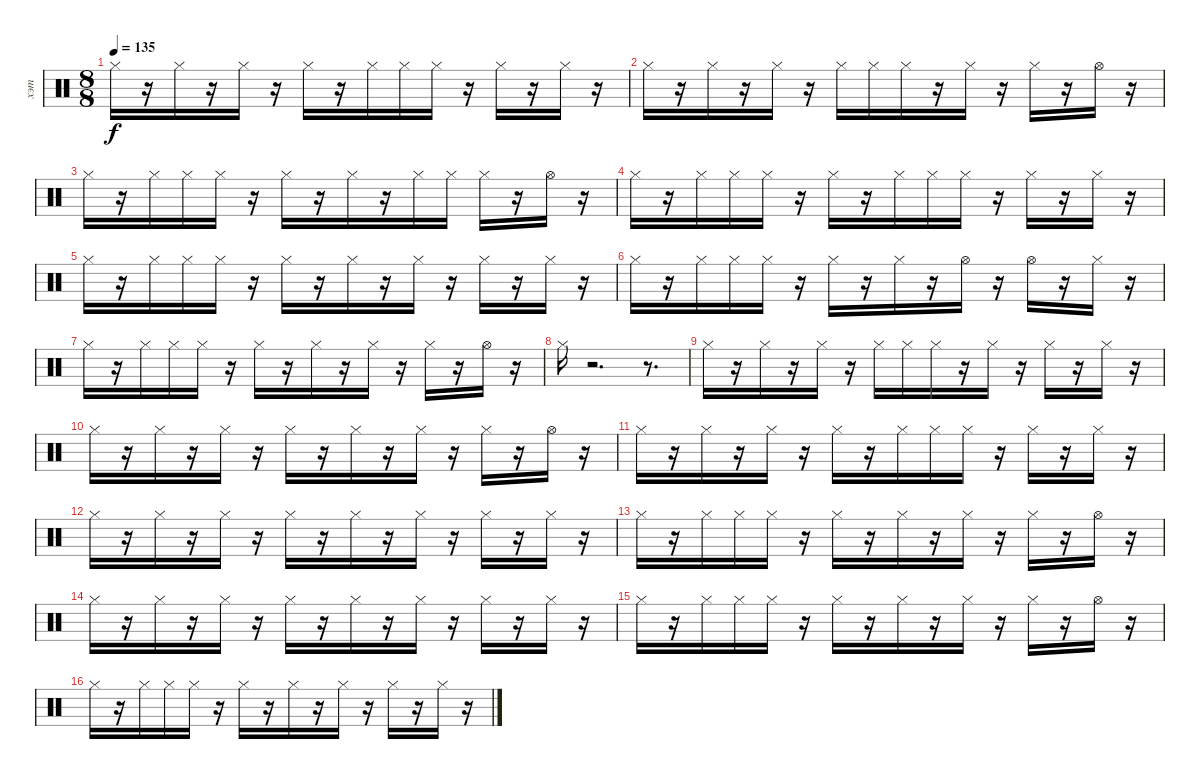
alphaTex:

\track ("хэт" "хэт") {instrument percussion}
\staff {score}
\articulation defaults
\ts (8 8)
\tempo 135
\clef neutral
\ks c "Hi-Hat (closed)".16{dy f}
r.16 "Hi-Hat (closed)".16 r.16 "Hi-Hat (closed)".16 r.16 "Hi-Hat (closed)".16 r.16 "Hi-Hat (closed)".16 "Hi-Hat (closed)".16 "Hi-Hat (closed)".16 r.16 "Hi-Hat (closed)".16 r.16 "Hi-Hat (closed)".16 r.16 |
"Hi-Hat (closed)".16 r.16 "Hi-Hat (closed)".16 r.16 "Hi-Hat (closed)".16 r.16 "Hi-Hat (closed)".16 "Hi-Hat (closed)".16 "Hi-Hat (closed)".16 r.16 "Hi-Hat (closed)".16 r.16 "Hi-Hat (closed)".16 r.16 "Hi-Hat (open)".16 r.16 |
"Hi-Hat (closed)".16 r.16 "Hi-Hat (closed)".16 "Hi-Hat (closed)".16 "Hi-Hat (closed)".16 r.16 "Hi-Hat (closed)".16 r.16 "Hi-Hat (closed)".16 r.16 "Hi-Hat (closed)".16 "Hi-Hat (closed)".16 "Hi-Hat (closed)".16 r.16 "Hi-Hat (open)".16 r.16 |
"Hi-Hat (closed)".16 r.16 "Hi-Hat (closed)".16 "Hi-Hat (closed)".16 "Hi-Hat (closed)".16 r.16 "Hi-Hat (closed)".16 r.16 "Hi-Hat (closed)".16 "Hi-Hat (closed)".16 "Hi-Hat (closed)".16 r.16 "Hi-Hat (closed)".16 r.16 "Hi-Hat (closed)".16 r.16 |
"Hi-Hat (closed)".16 r.16 "Hi-Hat (closed)".16 "Hi-Hat (closed)".16 "Hi-Hat (closed)".16 r.16 "Hi-Hat (closed)".16 r.16 "Hi-Hat (closed)".16 r.16 "Hi-Hat (closed)".16 r.16 "Hi-Hat (closed)".16 r.16 "Hi-Hat (closed)".16 r.16 |
"Hi-Hat (closed)".16 r.16 "Hi-Hat (closed)".16 "Hi-Hat (closed)".16 "Hi-Hat (closed)".16 r.16 "Hi-Hat (closed)".16 r.16 "Hi-Hat (closed)".16 r.16 "Hi-Hat (open)".16 r.16 "Hi-Hat (open)".16 r.16 "Hi-Hat (closed)".16 r.16 |
"Hi-Hat (closed)".16 r.16 "Hi-Hat (closed)".16 "Hi-Hat (closed)".16 "Hi-Hat (closed)".16 r.16 "Hi-Hat (closed)".16 r.16 "Hi-Hat (closed)".16 r.16 "Hi-Hat (closed)".16 r.16 "Hi-Hat (closed)".16 r.16 "Hi-Hat (open)".16 r.16 |
"Hi-Hat (closed)".16 r.2{d} r.8{d} |
"Hi-Hat (closed)".16 r.16 "Hi-Hat (closed)".16 r.16 "Hi-Hat (closed)".16 r.16 "Hi-Hat (closed)".16 "Hi-Hat (closed)".16 "Hi-Hat (closed)".16 r.16 "Hi-Hat (closed)".16 r.16 "Hi-Hat (closed)".16 r.16 "Hi-Hat (closed)".16 r.16 |
"Hi-Hat (closed)".16 r.16 "Hi-Hat (closed)".16 r.16 "Hi-Hat (closed)".16 r.16 "Hi-Hat (closed)".16 r.16 "Hi-Hat (closed)".16 r.16 "Hi-Hat (closed)".16 r.16 "Hi-Hat (closed)".16 r.16 "Hi-Hat (open)".16 r.16 |
"Hi-Hat (closed)".16 r.16 "Hi-Hat (closed)".16 r.16 "Hi-Hat (closed)".16 r.16 "Hi-Hat (closed)".16 r.16 "Hi-Hat (closed)".16 "Hi-Hat (closed)".16 "Hi-Hat (closed)".16 r.16 "Hi-Hat (closed)".16 r.16 "Hi-Hat (closed)".16 r.16 |
"Hi-Hat (closed)".16 r.16 "Hi-Hat (closed)".16 r.16 "Hi-Hat (closed)".16 r.16 "Hi-Hat (closed)".16 r.16 "Hi-Hat (closed)".16 r.16 "Hi-Hat (closed)".16 r.16 "Hi-Hat (closed)".16 r.16 "Hi-Hat (closed)".16 r.16 |
"Hi-Hat (closed)".16 r.16 "Hi-Hat (closed)".16 "Hi-Hat (closed)".16 "Hi-Hat (closed)".16 r.16 "Hi-Hat (closed)".16 r.16 "Hi-Hat (closed)".16 r.16 "Hi-Hat (closed)".16 r.16 "Hi-Hat (closed)".16 r.16 "Hi-Hat (open)".16 r.16 |
"Hi-Hat (closed)".16 r.16 "Hi-Hat (closed)".16 r.16 "Hi-Hat (closed)".16 r.16 "Hi-Hat (closed)".16 r.16 "Hi-Hat (closed)".16 r.16 "Hi-Hat (closed)".16 r.16 "Hi-Hat (closed)".16 r.16 "Hi-Hat (closed)".16 r.16 |
"Hi-Hat (closed)".16 r.16 "Hi-Hat (closed)".16 "Hi-Hat (closed)".16 "Hi-Hat (closed)".16 r.16 "Hi-Hat (closed)".16 r.16 "Hi-Hat (closed)".16 r.16 "Hi-Hat (closed)".16 r.16 "Hi-Hat (closed)".16 r.16 "Hi-Hat (open)".16 r.16 |
"Hi-Hat (closed)".16 r.16 "Hi-Hat (closed)".16 "Hi-Hat (closed)".16 "Hi-Hat (closed)".16 r.16 "Hi-Hat (closed)".16 r.16 "Hi-Hat (closed)".16 r.16 "Hi-Hat (closed)".16 r.16 "Hi-Hat (closed)".16 r.16 "Hi-Hat (closed)".16 r.16
